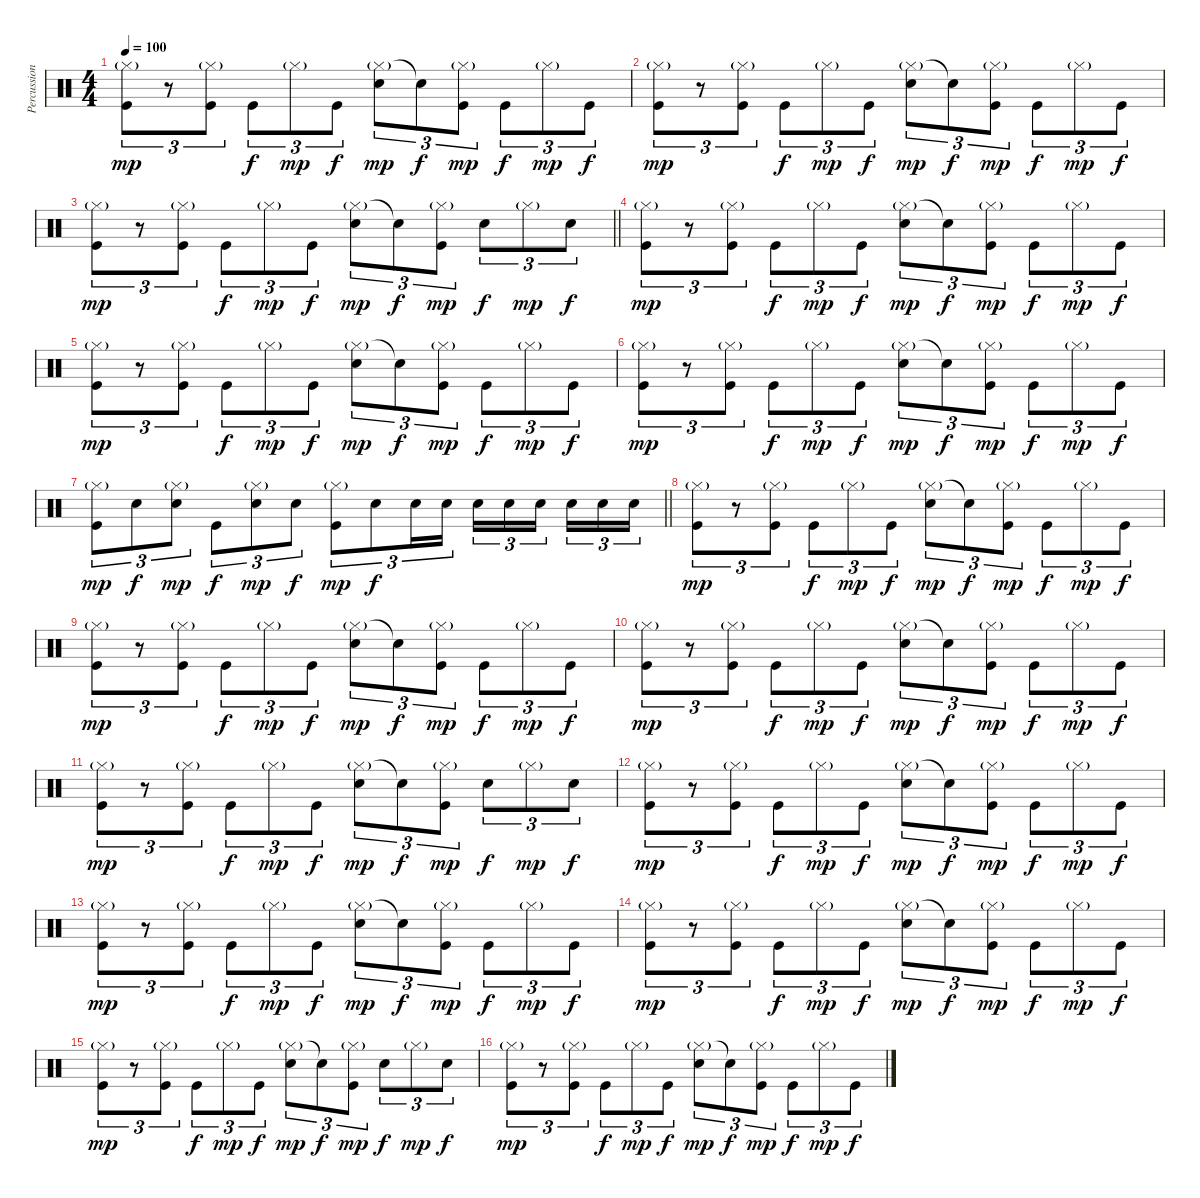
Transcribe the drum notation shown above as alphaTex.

\track ("Percussions" "Percussion") {instrument percussion}
\staff {score}
\articulation defaults
\ts (4 4)
\tempo 100
\clef neutral
\ks c
("Hi-Hat (closed)"{g} "Kick (hit)").8{tu (3 2) dy mp} r.8{tu (3 2)} ("Hi-Hat (closed)"{g} "Kick (hit)").8{tu (3 2)} "Kick (hit)".8{tu (3 2) dy f} "Hi-Hat (closed)"{g}.8{tu (3 2) dy mp} "Kick (hit)".8{tu (3 2) dy f} ("Hi-Hat (closed)"{g} "Electric Snare (hit)").8{tu (3 2) dy mp} "Snare (hit)"{t}.8{tu (3 2) dy f} ("Hi-Hat (closed)"{g} "Kick (hit)").8{tu (3 2) dy mp} "Kick (hit)".8{tu (3 2) dy f} "Hi-Hat (closed)"{g}.8{tu (3 2) dy mp} "Kick (hit)".8{tu (3 2) dy f} |
("Hi-Hat (closed)"{g} "Kick (hit)").8{tu (3 2) dy mp} r.8{tu (3 2)} ("Hi-Hat (closed)"{g} "Kick (hit)").8{tu (3 2)} "Kick (hit)".8{tu (3 2) dy f} "Hi-Hat (closed)"{g}.8{tu (3 2) dy mp} "Kick (hit)".8{tu (3 2) dy f} ("Hi-Hat (closed)"{g} "Electric Snare (hit)").8{tu (3 2) dy mp} "Snare (hit)"{t}.8{tu (3 2) dy f} ("Hi-Hat (closed)"{g} "Kick (hit)").8{tu (3 2) dy mp} "Kick (hit)".8{tu (3 2) dy f} "Hi-Hat (closed)"{g}.8{tu (3 2) dy mp} "Kick (hit)".8{tu (3 2) dy f} |
\barLineRight lightlight
("Hi-Hat (closed)"{g} "Kick (hit)").8{tu (3 2) dy mp} r.8{tu (3 2)} ("Hi-Hat (closed)"{g} "Kick (hit)").8{tu (3 2)} "Kick (hit)".8{tu (3 2) dy f} "Hi-Hat (closed)"{g}.8{tu (3 2) dy mp} "Kick (hit)".8{tu (3 2) dy f} ("Hi-Hat (closed)"{g} "Electric Snare (hit)").8{tu (3 2) dy mp} "Snare (hit)"{t}.8{tu (3 2) dy f} ("Hi-Hat (closed)"{g} "Kick (hit)").8{tu (3 2) dy mp} "Electric Snare (hit)".8{tu (3 2) dy f} "Hi-Hat (closed)"{g}.8{tu (3 2) dy mp} "Electric Snare (hit)".8{tu (3 2) dy f} |
("Hi-Hat (closed)"{g} "Kick (hit)").8{tu (3 2) dy mp} r.8{tu (3 2)} ("Hi-Hat (closed)"{g} "Kick (hit)").8{tu (3 2)} "Kick (hit)".8{tu (3 2) dy f} "Hi-Hat (closed)"{g}.8{tu (3 2) dy mp} "Kick (hit)".8{tu (3 2) dy f} ("Hi-Hat (closed)"{g} "Electric Snare (hit)").8{tu (3 2) dy mp} "Snare (hit)"{t}.8{tu (3 2) dy f} ("Hi-Hat (closed)"{g} "Kick (hit)").8{tu (3 2) dy mp} "Kick (hit)".8{tu (3 2) dy f} "Hi-Hat (closed)"{g}.8{tu (3 2) dy mp} "Kick (hit)".8{tu (3 2) dy f} |
("Hi-Hat (closed)"{g} "Kick (hit)").8{tu (3 2) dy mp} r.8{tu (3 2)} ("Hi-Hat (closed)"{g} "Kick (hit)").8{tu (3 2)} "Kick (hit)".8{tu (3 2) dy f} "Hi-Hat (closed)"{g}.8{tu (3 2) dy mp} "Kick (hit)".8{tu (3 2) dy f} ("Hi-Hat (closed)"{g} "Electric Snare (hit)").8{tu (3 2) dy mp} "Snare (hit)"{t}.8{tu (3 2) dy f} ("Hi-Hat (closed)"{g} "Kick (hit)").8{tu (3 2) dy mp} "Kick (hit)".8{tu (3 2) dy f} "Hi-Hat (closed)"{g}.8{tu (3 2) dy mp} "Kick (hit)".8{tu (3 2) dy f} |
("Hi-Hat (closed)"{g} "Kick (hit)").8{tu (3 2) dy mp} r.8{tu (3 2)} ("Hi-Hat (closed)"{g} "Kick (hit)").8{tu (3 2)} "Kick (hit)".8{tu (3 2) dy f} "Hi-Hat (closed)"{g}.8{tu (3 2) dy mp} "Kick (hit)".8{tu (3 2) dy f} ("Hi-Hat (closed)"{g} "Electric Snare (hit)").8{tu (3 2) dy mp} "Snare (hit)"{t}.8{tu (3 2) dy f} ("Hi-Hat (closed)"{g} "Kick (hit)").8{tu (3 2) dy mp} "Kick (hit)".8{tu (3 2) dy f} "Hi-Hat (closed)"{g}.8{tu (3 2) dy mp} "Kick (hit)".8{tu (3 2) dy f} |
\barLineRight lightlight
("Hi-Hat (closed)"{g} "Kick (hit)").8{tu (3 2) dy mp} "Electric Snare (hit)".8{tu (3 2) dy f} ("Hi-Hat (closed)"{g} "Electric Snare (hit)").8{tu (3 2) dy mp} "Kick (hit)".8{tu (3 2) dy f} ("Hi-Hat (closed)"{g} "Electric Snare (hit)").8{tu (3 2) dy mp} "Electric Snare (hit)".8{tu (3 2) dy f} ("Hi-Hat (closed)"{g} "Kick (hit)").8{tu (3 2) dy mp} "Electric Snare (hit)".8{tu (3 2) dy f} "Electric Snare (hit)".16{tu (3 2)} "Electric Snare (hit)".16{tu (3 2)} "Electric Snare (hit)".16{tu (3 2)} "Electric Snare (hit)".16{tu (3 2)} "Electric Snare (hit)".16{tu (3 2)} "Electric Snare (hit)".16{tu (3 2)} "Electric Snare (hit)".16{tu (3 2)} "Electric Snare (hit)".16{tu (3 2)} |
("Hi-Hat (closed)"{g} "Kick (hit)").8{tu (3 2) dy mp} r.8{tu (3 2)} ("Hi-Hat (closed)"{g} "Kick (hit)").8{tu (3 2)} "Kick (hit)".8{tu (3 2) dy f} "Hi-Hat (closed)"{g}.8{tu (3 2) dy mp} "Kick (hit)".8{tu (3 2) dy f} ("Hi-Hat (closed)"{g} "Electric Snare (hit)").8{tu (3 2) dy mp} "Snare (hit)"{t}.8{tu (3 2) dy f} ("Hi-Hat (closed)"{g} "Kick (hit)").8{tu (3 2) dy mp} "Kick (hit)".8{tu (3 2) dy f} "Hi-Hat (closed)"{g}.8{tu (3 2) dy mp} "Kick (hit)".8{tu (3 2) dy f} |
("Hi-Hat (closed)"{g} "Kick (hit)").8{tu (3 2) dy mp} r.8{tu (3 2)} ("Hi-Hat (closed)"{g} "Kick (hit)").8{tu (3 2)} "Kick (hit)".8{tu (3 2) dy f} "Hi-Hat (closed)"{g}.8{tu (3 2) dy mp} "Kick (hit)".8{tu (3 2) dy f} ("Hi-Hat (closed)"{g} "Electric Snare (hit)").8{tu (3 2) dy mp} "Snare (hit)"{t}.8{tu (3 2) dy f} ("Hi-Hat (closed)"{g} "Kick (hit)").8{tu (3 2) dy mp} "Kick (hit)".8{tu (3 2) dy f} "Hi-Hat (closed)"{g}.8{tu (3 2) dy mp} "Kick (hit)".8{tu (3 2) dy f} |
("Hi-Hat (closed)"{g} "Kick (hit)").8{tu (3 2) dy mp} r.8{tu (3 2)} ("Hi-Hat (closed)"{g} "Kick (hit)").8{tu (3 2)} "Kick (hit)".8{tu (3 2) dy f} "Hi-Hat (closed)"{g}.8{tu (3 2) dy mp} "Kick (hit)".8{tu (3 2) dy f} ("Hi-Hat (closed)"{g} "Electric Snare (hit)").8{tu (3 2) dy mp} "Snare (hit)"{t}.8{tu (3 2) dy f} ("Hi-Hat (closed)"{g} "Kick (hit)").8{tu (3 2) dy mp} "Kick (hit)".8{tu (3 2) dy f} "Hi-Hat (closed)"{g}.8{tu (3 2) dy mp} "Kick (hit)".8{tu (3 2) dy f} |
("Hi-Hat (closed)"{g} "Kick (hit)").8{tu (3 2) dy mp} r.8{tu (3 2)} ("Hi-Hat (closed)"{g} "Kick (hit)").8{tu (3 2)} "Kick (hit)".8{tu (3 2) dy f} "Hi-Hat (closed)"{g}.8{tu (3 2) dy mp} "Kick (hit)".8{tu (3 2) dy f} ("Hi-Hat (closed)"{g} "Electric Snare (hit)").8{tu (3 2) dy mp} "Snare (hit)"{t}.8{tu (3 2) dy f} ("Hi-Hat (closed)"{g} "Kick (hit)").8{tu (3 2) dy mp} "Electric Snare (hit)".8{tu (3 2) dy f} "Hi-Hat (closed)"{g}.8{tu (3 2) dy mp} "Electric Snare (hit)".8{tu (3 2) dy f} |
("Hi-Hat (closed)"{g} "Kick (hit)").8{tu (3 2) dy mp} r.8{tu (3 2)} ("Hi-Hat (closed)"{g} "Kick (hit)").8{tu (3 2)} "Kick (hit)".8{tu (3 2) dy f} "Hi-Hat (closed)"{g}.8{tu (3 2) dy mp} "Kick (hit)".8{tu (3 2) dy f} ("Hi-Hat (closed)"{g} "Electric Snare (hit)").8{tu (3 2) dy mp} "Snare (hit)"{t}.8{tu (3 2) dy f} ("Hi-Hat (closed)"{g} "Kick (hit)").8{tu (3 2) dy mp} "Kick (hit)".8{tu (3 2) dy f} "Hi-Hat (closed)"{g}.8{tu (3 2) dy mp} "Kick (hit)".8{tu (3 2) dy f} |
("Hi-Hat (closed)"{g} "Kick (hit)").8{tu (3 2) dy mp} r.8{tu (3 2)} ("Hi-Hat (closed)"{g} "Kick (hit)").8{tu (3 2)} "Kick (hit)".8{tu (3 2) dy f} "Hi-Hat (closed)"{g}.8{tu (3 2) dy mp} "Kick (hit)".8{tu (3 2) dy f} ("Hi-Hat (closed)"{g} "Electric Snare (hit)").8{tu (3 2) dy mp} "Snare (hit)"{t}.8{tu (3 2) dy f} ("Hi-Hat (closed)"{g} "Kick (hit)").8{tu (3 2) dy mp} "Kick (hit)".8{tu (3 2) dy f} "Hi-Hat (closed)"{g}.8{tu (3 2) dy mp} "Kick (hit)".8{tu (3 2) dy f} |
("Hi-Hat (closed)"{g} "Kick (hit)").8{tu (3 2) dy mp} r.8{tu (3 2)} ("Hi-Hat (closed)"{g} "Kick (hit)").8{tu (3 2)} "Kick (hit)".8{tu (3 2) dy f} "Hi-Hat (closed)"{g}.8{tu (3 2) dy mp} "Kick (hit)".8{tu (3 2) dy f} ("Hi-Hat (closed)"{g} "Electric Snare (hit)").8{tu (3 2) dy mp} "Snare (hit)"{t}.8{tu (3 2) dy f} ("Hi-Hat (closed)"{g} "Kick (hit)").8{tu (3 2) dy mp} "Kick (hit)".8{tu (3 2) dy f} "Hi-Hat (closed)"{g}.8{tu (3 2) dy mp} "Kick (hit)".8{tu (3 2) dy f} |
("Hi-Hat (closed)"{g} "Kick (hit)").8{tu (3 2) dy mp} r.8{tu (3 2)} ("Hi-Hat (closed)"{g} "Kick (hit)").8{tu (3 2)} "Kick (hit)".8{tu (3 2) dy f} "Hi-Hat (closed)"{g}.8{tu (3 2) dy mp} "Kick (hit)".8{tu (3 2) dy f} ("Hi-Hat (closed)"{g} "Electric Snare (hit)").8{tu (3 2) dy mp} "Snare (hit)"{t}.8{tu (3 2) dy f} ("Hi-Hat (closed)"{g} "Kick (hit)").8{tu (3 2) dy mp} "Electric Snare (hit)".8{tu (3 2) dy f} "Hi-Hat (closed)"{g}.8{tu (3 2) dy mp} "Electric Snare (hit)".8{tu (3 2) dy f} |
("Hi-Hat (closed)"{g} "Kick (hit)").8{tu (3 2) dy mp} r.8{tu (3 2)} ("Hi-Hat (closed)"{g} "Kick (hit)").8{tu (3 2)} "Kick (hit)".8{tu (3 2) dy f} "Hi-Hat (closed)"{g}.8{tu (3 2) dy mp} "Kick (hit)".8{tu (3 2) dy f} ("Hi-Hat (closed)"{g} "Electric Snare (hit)").8{tu (3 2) dy mp} "Snare (hit)"{t}.8{tu (3 2) dy f} ("Hi-Hat (closed)"{g} "Kick (hit)").8{tu (3 2) dy mp} "Kick (hit)".8{tu (3 2) dy f} "Hi-Hat (closed)"{g}.8{tu (3 2) dy mp} "Kick (hit)".8{tu (3 2) dy f}
